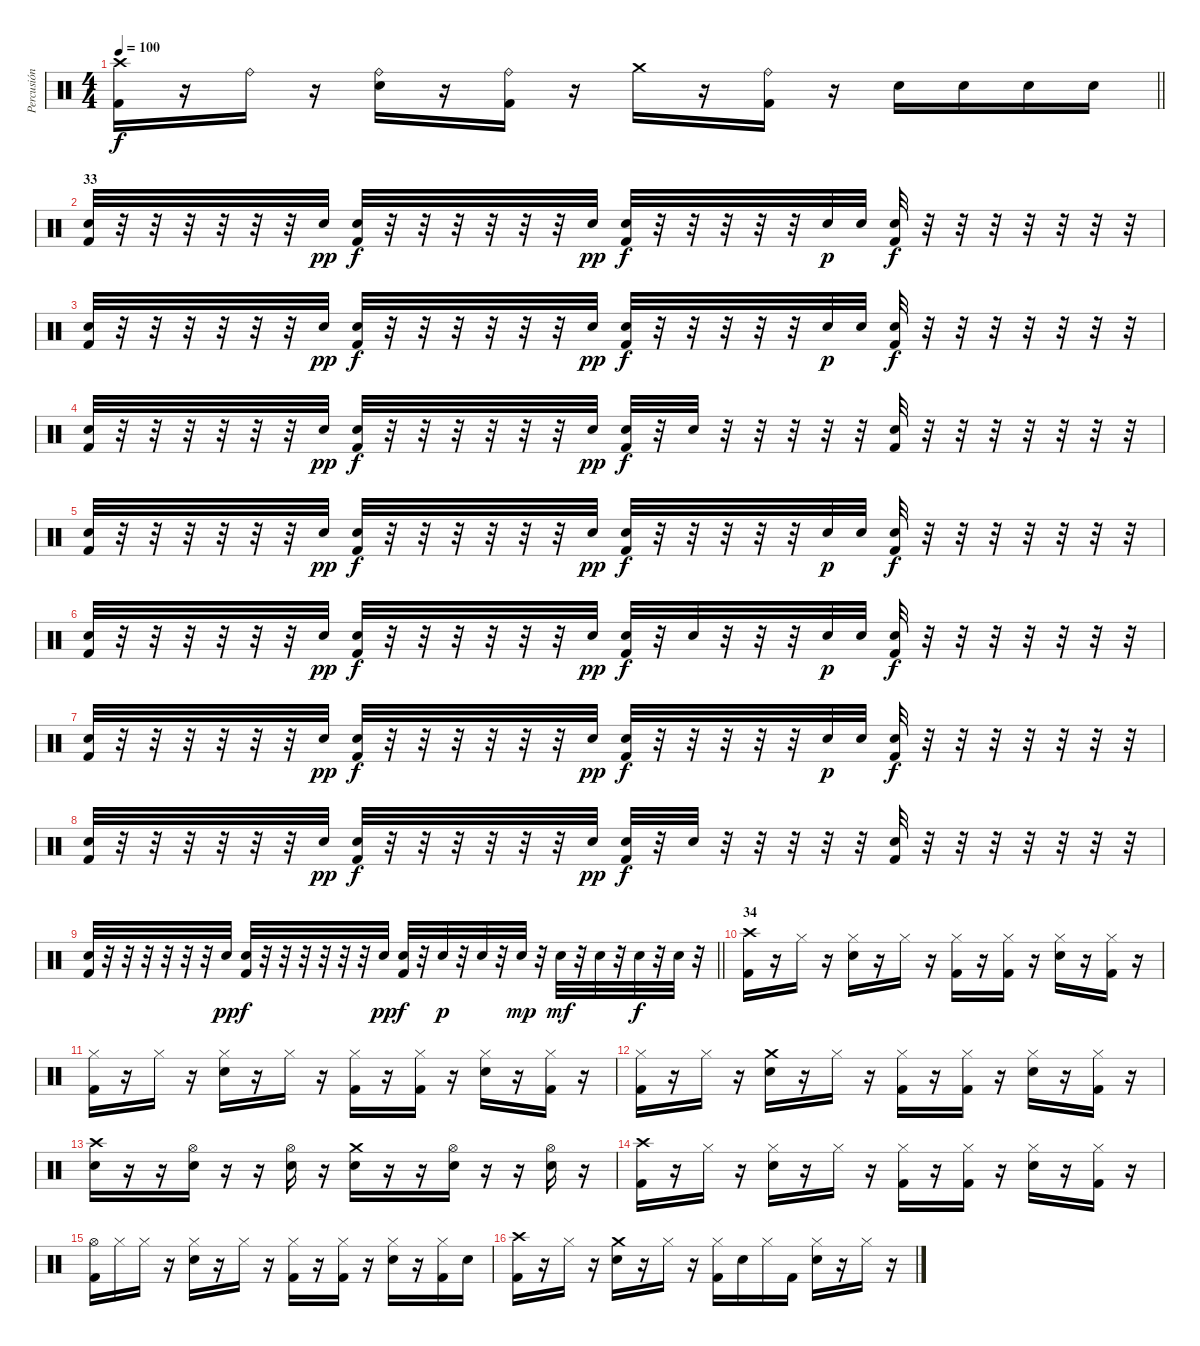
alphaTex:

\track ("Percusión" "Percusión") {instrument percussion}
\staff {score}
\articulation defaults
\ts (4 4)
\tempo 100
\clef neutral
\barLineRight lightlight
\ks c
("Crash high (hit)" "Kick (hit) 2").16{dy f} r.16 "Ride (bell)".16 r.16 ("Ride (bell)" "Electric Snare (hit)").16 r.16 ("Ride (bell)" "Kick (hit) 2").16 r.16 "Crash medium (hit)".16 r.16 ("Ride (bell)" "Kick (hit) 2").16 r.16 "Electric Snare (hit)".16 "Electric Snare (hit)".16 "Electric Snare (hit)".16 "Electric Snare (hit)".16 |
\section ("" "33")
("Electric Snare (hit)" "Kick (hit) 2").32 r.32 r.32 r.32 r.32 r.32 r.32 "Electric Snare (hit)".32{dy pp} ("Electric Snare (hit)" "Kick (hit) 2").32{dy f} r.32 r.32 r.32 r.32 r.32 r.32 "Electric Snare (hit)".32{dy pp} ("Electric Snare (hit)" "Kick (hit) 2").32{dy f} r.32 r.32 r.32 r.32 r.32 "Electric Snare (hit)".32{dy p} "Electric Snare (hit)".32 ("Electric Snare (hit)" "Kick (hit) 2").32{dy f} r.32 r.32 r.32 r.32 r.32 r.32 r.32 |
("Electric Snare (hit)" "Kick (hit) 2").32 r.32 r.32 r.32 r.32 r.32 r.32 "Electric Snare (hit)".32{dy pp} ("Electric Snare (hit)" "Kick (hit) 2").32{dy f} r.32 r.32 r.32 r.32 r.32 r.32 "Electric Snare (hit)".32{dy pp} ("Electric Snare (hit)" "Kick (hit) 2").32{dy f} r.32 r.32 r.32 r.32 r.32 "Electric Snare (hit)".32{dy p} "Electric Snare (hit)".32 ("Electric Snare (hit)" "Kick (hit) 2").32{dy f} r.32 r.32 r.32 r.32 r.32 r.32 r.32 |
("Electric Snare (hit)" "Kick (hit) 2").32 r.32 r.32 r.32 r.32 r.32 r.32 "Electric Snare (hit)".32{dy pp} ("Electric Snare (hit)" "Kick (hit) 2").32{dy f} r.32 r.32 r.32 r.32 r.32 r.32 "Electric Snare (hit)".32{dy pp} ("Electric Snare (hit)" "Kick (hit) 2").32{dy f} r.32 "Electric Snare (hit)".32 r.32 r.32 r.32 r.32 r.32 ("Electric Snare (hit)" "Kick (hit) 2").32 r.32 r.32 r.32 r.32 r.32 r.32 r.32 |
("Electric Snare (hit)" "Kick (hit) 2").32 r.32 r.32 r.32 r.32 r.32 r.32 "Electric Snare (hit)".32{dy pp} ("Electric Snare (hit)" "Kick (hit) 2").32{dy f} r.32 r.32 r.32 r.32 r.32 r.32 "Electric Snare (hit)".32{dy pp} ("Electric Snare (hit)" "Kick (hit) 2").32{dy f} r.32 r.32 r.32 r.32 r.32 "Electric Snare (hit)".32{dy p} "Electric Snare (hit)".32 ("Electric Snare (hit)" "Kick (hit) 2").32{dy f} r.32 r.32 r.32 r.32 r.32 r.32 r.32 |
("Electric Snare (hit)" "Kick (hit) 2").32 r.32 r.32 r.32 r.32 r.32 r.32 "Electric Snare (hit)".32{dy pp} ("Electric Snare (hit)" "Kick (hit) 2").32{dy f} r.32 r.32 r.32 r.32 r.32 r.32 "Electric Snare (hit)".32{dy pp} ("Electric Snare (hit)" "Kick (hit) 2").32{dy f} r.32 "Electric Snare (hit)".32 r.32 r.32 r.32 "Electric Snare (hit)".32{dy p} "Electric Snare (hit)".32 ("Electric Snare (hit)" "Kick (hit) 2").32{dy f} r.32 r.32 r.32 r.32 r.32 r.32 r.32 |
("Electric Snare (hit)" "Kick (hit) 2").32 r.32 r.32 r.32 r.32 r.32 r.32 "Electric Snare (hit)".32{dy pp} ("Electric Snare (hit)" "Kick (hit) 2").32{dy f} r.32 r.32 r.32 r.32 r.32 r.32 "Electric Snare (hit)".32{dy pp} ("Electric Snare (hit)" "Kick (hit) 2").32{dy f} r.32 r.32 r.32 r.32 r.32 "Electric Snare (hit)".32{dy p} "Electric Snare (hit)".32 ("Electric Snare (hit)" "Kick (hit) 2").32{dy f} r.32 r.32 r.32 r.32 r.32 r.32 r.32 |
("Electric Snare (hit)" "Kick (hit) 2").32 r.32 r.32 r.32 r.32 r.32 r.32 "Electric Snare (hit)".32{dy pp} ("Electric Snare (hit)" "Kick (hit) 2").32{dy f} r.32 r.32 r.32 r.32 r.32 r.32 "Electric Snare (hit)".32{dy pp} ("Electric Snare (hit)" "Kick (hit) 2").32{dy f} r.32 "Electric Snare (hit)".32 r.32 r.32 r.32 r.32 r.32 ("Electric Snare (hit)" "Kick (hit) 2").32 r.32 r.32 r.32 r.32 r.32 r.32 r.32 |
\barLineRight lightlight
("Electric Snare (hit)" "Kick (hit) 2").32 r.32 r.32 r.32 r.32 r.32 r.32 "Electric Snare (hit)".32{dy pp} ("Electric Snare (hit)" "Kick (hit) 2").32{dy f} r.32 r.32 r.32 r.32 r.32 r.32 "Electric Snare (hit)".32{dy pp} ("Electric Snare (hit)" "Kick (hit) 2").32{dy f} r.32 "Electric Snare (hit)".32{dy p} r.32 "Electric Snare (hit)".32 r.32 "Electric Snare (hit)".32{dy mp} r.32 "Electric Snare (hit)".32{dy mf} r.32 "Electric Snare (hit)".32 r.32 "Electric Snare (hit)".32{dy f} r.32 "Electric Snare (hit)".32 r.32 |
\section ("" "34")
("Crash high (hit)" "Kick (hit) 2").16 r.16 "Hi-Hat (closed)".16 r.16 ("Hi-Hat (closed)" "Electric Snare (hit)").16 r.16 "Hi-Hat (closed)".16 r.16 ("Hi-Hat (closed)" "Kick (hit) 2").16 r.16 ("Hi-Hat (closed)" "Kick (hit) 2").16 r.16 ("Hi-Hat (closed)" "Electric Snare (hit)").16 r.16 ("Hi-Hat (closed)" "Kick (hit) 2").16 r.16 |
("Hi-Hat (closed)" "Kick (hit) 2").16 r.16 "Hi-Hat (closed)".16 r.16 ("Hi-Hat (closed)" "Electric Snare (hit)").16 r.16 "Hi-Hat (closed)".16 r.16 ("Hi-Hat (closed)" "Kick (hit) 2").16 r.16 ("Hi-Hat (closed)" "Kick (hit) 2").16 r.16 ("Hi-Hat (closed)" "Electric Snare (hit)").16 r.16 ("Hi-Hat (closed)" "Kick (hit) 2").16 r.16 |
("Hi-Hat (closed)" "Kick (hit) 2").16 r.16 "Hi-Hat (closed)".16 r.16 ("Crash medium (hit)" "Electric Snare (hit)").16 r.16 "Hi-Hat (closed)".16 r.16 ("Hi-Hat (closed)" "Kick (hit) 2").16 r.16 ("Hi-Hat (closed)" "Kick (hit) 2").16 r.16 ("Hi-Hat (closed)" "Electric Snare (hit)").16 r.16 ("Hi-Hat (closed)" "Kick (hit) 2").16 r.16 |
("Crash high (hit)" "Electric Snare (hit)").16 r.16 r.16 ("Hi-Hat (open)" "Electric Snare (hit)").16 r.16 r.16 ("Hi-Hat (open)" "Electric Snare (hit)").16 r.16 ("Crash medium (hit)" "Electric Snare (hit)").16 r.16 r.16 ("Hi-Hat (open)" "Electric Snare (hit)").16 r.16 r.16 ("Hi-Hat (open)" "Electric Snare (hit)").16 r.16 |
("Crash high (hit)" "Kick (hit) 2").16 r.16 "Hi-Hat (closed)".16 r.16 ("Hi-Hat (closed)" "Electric Snare (hit)").16 r.16 "Hi-Hat (closed)".16 r.16 ("Hi-Hat (closed)" "Kick (hit) 2").16 r.16 ("Hi-Hat (closed)" "Kick (hit) 2").16 r.16 ("Hi-Hat (closed)" "Electric Snare (hit)").16 r.16 ("Hi-Hat (closed)" "Kick (hit) 2").16 r.16 |
("Hi-Hat (open)" "Kick (hit) 2").16 "Hi-Hat (closed)".16 "Hi-Hat (closed)".16 r.16 ("Hi-Hat (closed)" "Electric Snare (hit)").16 r.16 "Hi-Hat (closed)".16 r.16 ("Hi-Hat (closed)" "Kick (hit) 2").16 r.16 ("Hi-Hat (closed)" "Kick (hit) 2").16 r.16 ("Hi-Hat (closed)" "Electric Snare (hit)").16 r.16 ("Hi-Hat (closed)" "Kick (hit) 2").16 "Electric Snare (hit)".16 |
("Crash high (hit)" "Kick (hit) 2").16 r.16 "Hi-Hat (closed)".16 r.16 ("Crash medium (hit)" "Electric Snare (hit)").16 r.16 "Hi-Hat (closed)".16 r.16 ("Hi-Hat (closed)" "Kick (hit) 2").16 "Electric Snare (hit)".16 "Hi-Hat (closed)".16 "Kick (hit) 2".16 ("Hi-Hat (closed)" "Electric Snare (hit)").16 r.16 "Hi-Hat (closed)".16 r.16
